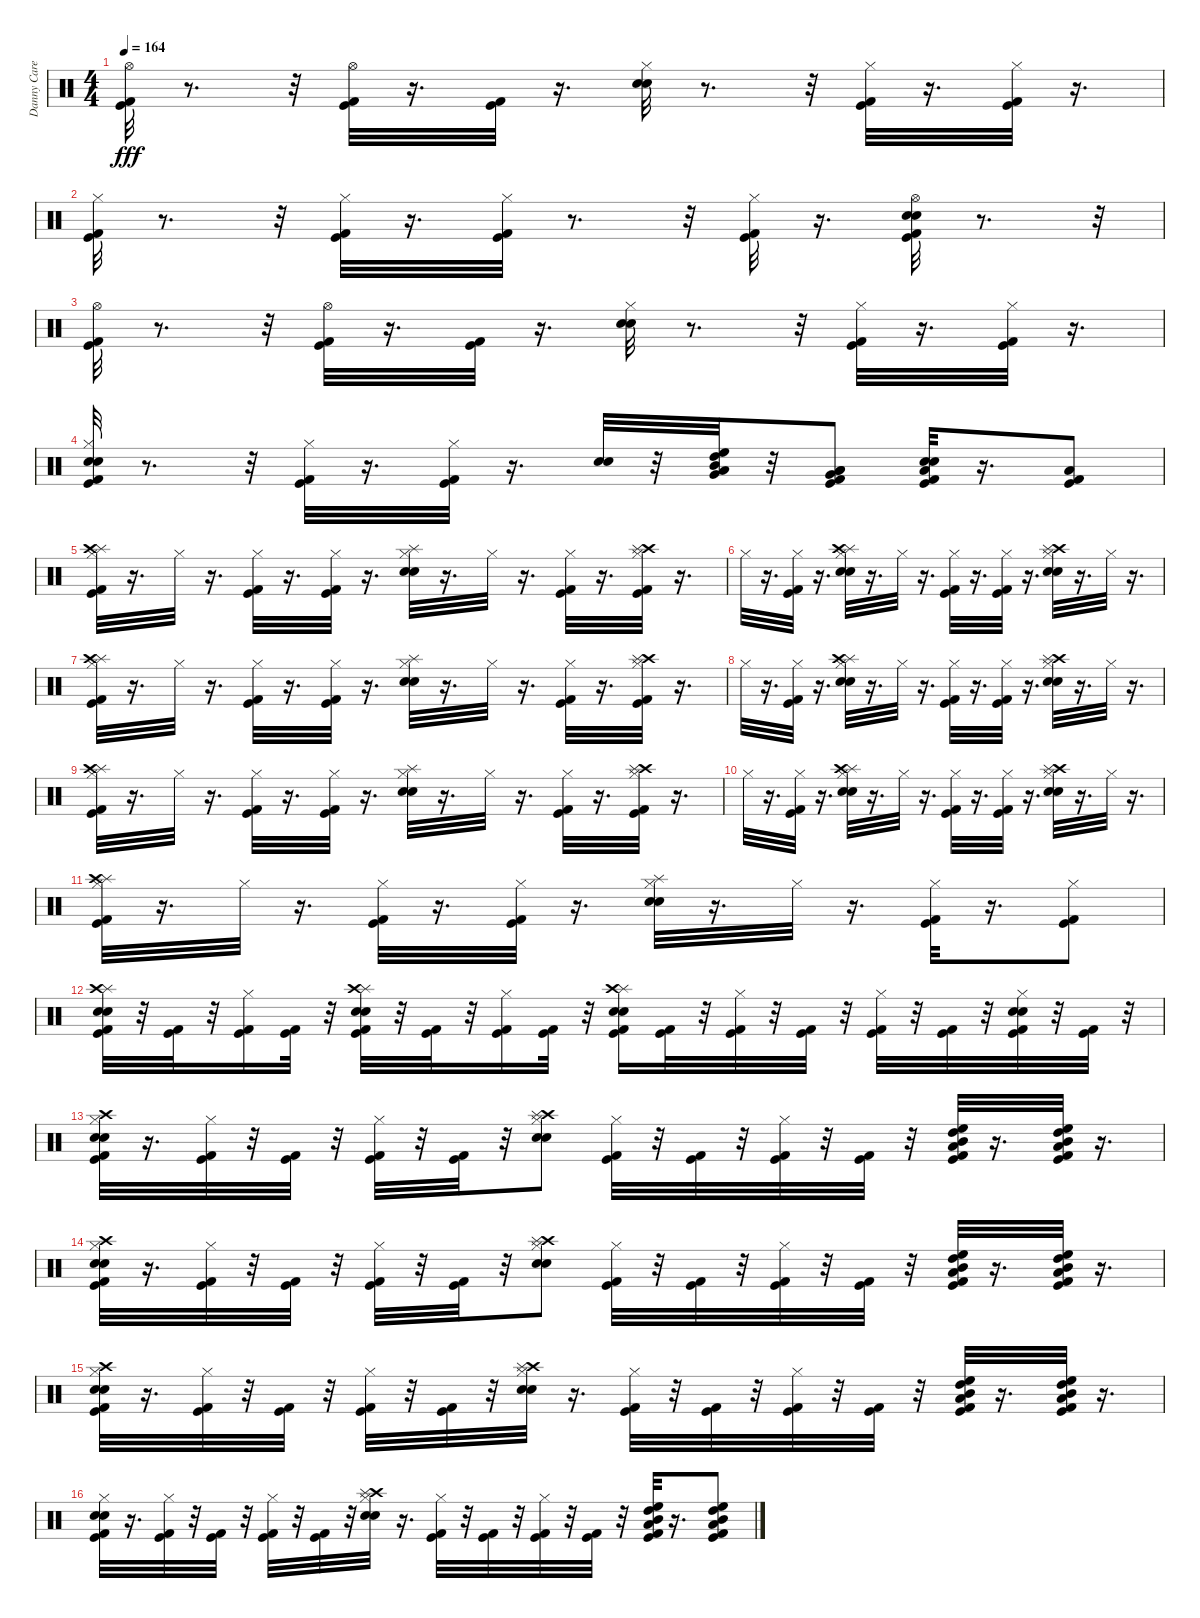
\track ("Danny Carey" "Danny Care") {instrument percussion}
\staff {score}
\articulation defaults
\ts (4 4)
\tempo 164
\clef neutral
\ks c
("Hi-Hat (open)" "Kick (hit)" "Kick (hit) 2").32{dy fff} r.8{d} r.32 ("Hi-Hat (open)" "Kick (hit)" "Kick (hit) 2").32 r.16{d} ("Kick (hit)" "Kick (hit) 2").32 r.16{d} ("Hi-Hat (closed)" "Electric Snare (hit)" "Snare (hit) 2").32 r.8{d} r.32 ("Hi-Hat (closed)" "Kick (hit)" "Kick (hit) 2").32 r.16{d} ("Hi-Hat (closed)" "Kick (hit) 2" "Kick (hit)").32 r.16{d} |
("Hi-Hat (closed)" "Kick (hit)" "Kick (hit) 2").32 r.8{d} r.32 ("Hi-Hat (closed)" "Kick (hit)" "Kick (hit) 2").32 r.16{d} ("Hi-Hat (closed)" "Kick (hit)" "Kick (hit) 2").32 r.8{d} r.32 ("Hi-Hat (closed)" "Kick (hit)" "Kick (hit) 2").32 r.16{d} ("Hi-Hat (open)" "Electric Snare (hit)" "Snare (hit) 2" "Kick (hit) 2" "Kick (hit)").32 r.8{d} r.32 |
("Hi-Hat (open)" "Kick (hit)" "Kick (hit) 2").32 r.8{d} r.32 ("Hi-Hat (open)" "Kick (hit)" "Kick (hit) 2").32 r.16{d} ("Kick (hit)" "Kick (hit) 2").32 r.16{d} ("Hi-Hat (closed)" "Electric Snare (hit)" "Snare (hit) 2").32 r.8{d} r.32 ("Hi-Hat (closed)" "Kick (hit)" "Kick (hit) 2").32 r.16{d} ("Hi-Hat (closed)" "Kick (hit) 2" "Kick (hit)").32 r.16{d} |
("Snare (hit) 2" "Electric Snare (hit)" "Hi-Hat (closed)" "Kick (hit)" "Kick (hit) 2").32 r.8{d} r.32 ("Hi-Hat (closed)" "Kick (hit)" "Kick (hit) 2").32 r.16{d} ("Hi-Hat (closed)" "Kick (hit)" "Kick (hit) 2").32 r.16{d} ("Snare (hit) 2" "Electric Snare (hit)").32 r.32 ("High Floor Tom (hit)" "High Tom (hit)" "Mid Tom (hit)" "Very Low Tom (hit)" "Low Tom (hit)").32 r.32 ("Low Tom (hit)" "Very Low Tom (hit)" "Low Floor Tom (hit)" "Kick (hit)" "Kick (hit) 2").8 ("Low Floor Tom (hit)" "Kick (hit) 2" "Kick (hit)" "Electric Snare (hit)" "Snare (hit) 2").32 r.16{d} ("Low Floor Tom (hit)" "Kick (hit)" "Kick (hit) 2").8 |
("Splash (hit)" "Crash high (hit)" "Hi-Hat (closed)" "Kick (hit)" "Kick (hit) 2").32 r.16{d} "Hi-Hat (closed)".32 r.16{d} ("Hi-Hat (closed)" "Kick (hit)" "Kick (hit) 2").32 r.16{d} ("Hi-Hat (closed)" "Kick (hit)" "Kick (hit) 2").32 r.16{d} ("Splash (hit)" "Hi-Hat (closed)" "Electric Snare (hit)" "Snare (hit) 2").32 r.16{d} "Hi-Hat (closed)".32 r.16{d} ("Kick (hit)" "Kick (hit) 2" "Hi-Hat (closed)").32 r.16{d} ("Crash high (hit)" "Splash (hit)" "Kick (hit)" "Kick (hit) 2" "Hi-Hat (closed)").32 r.16{d} |
"Hi-Hat (closed)".32 r.16{d} ("Kick (hit)" "Kick (hit) 2" "Hi-Hat (closed)").32 r.16{d} ("Splash (hit)" "Crash high (hit)" "Electric Snare (hit)" "Snare (hit) 2" "Hi-Hat (closed)").32 r.16{d} "Hi-Hat (closed)".32 r.16{d} ("Kick (hit)" "Kick (hit) 2" "Hi-Hat (closed)").32 r.16{d} ("Hi-Hat (closed)" "Kick (hit)" "Kick (hit) 2").32 r.16{d} ("Crash high (hit)" "Splash (hit)" "Electric Snare (hit)" "Snare (hit) 2" "Hi-Hat (closed)").32 r.16{d} "Hi-Hat (closed)".32 r.16{d} |
("Splash (hit)" "Crash high (hit)" "Hi-Hat (closed)" "Kick (hit)" "Kick (hit) 2").32 r.16{d} "Hi-Hat (closed)".32 r.16{d} ("Hi-Hat (closed)" "Kick (hit)" "Kick (hit) 2").32 r.16{d} ("Hi-Hat (closed)" "Kick (hit)" "Kick (hit) 2").32 r.16{d} ("Splash (hit)" "Hi-Hat (closed)" "Electric Snare (hit)" "Snare (hit) 2").32 r.16{d} "Hi-Hat (closed)".32 r.16{d} ("Kick (hit)" "Kick (hit) 2" "Hi-Hat (closed)").32 r.16{d} ("Crash high (hit)" "Splash (hit)" "Kick (hit)" "Kick (hit) 2" "Hi-Hat (closed)").32 r.16{d} |
"Hi-Hat (closed)".32 r.16{d} ("Kick (hit)" "Kick (hit) 2" "Hi-Hat (closed)").32 r.16{d} ("Splash (hit)" "Crash high (hit)" "Electric Snare (hit)" "Snare (hit) 2" "Hi-Hat (closed)").32 r.16{d} "Hi-Hat (closed)".32 r.16{d} ("Kick (hit)" "Kick (hit) 2" "Hi-Hat (closed)").32 r.16{d} ("Hi-Hat (closed)" "Kick (hit)" "Kick (hit) 2").32 r.16{d} ("Crash high (hit)" "Splash (hit)" "Electric Snare (hit)" "Snare (hit) 2" "Hi-Hat (closed)").32 r.16{d} "Hi-Hat (closed)".32 r.16{d} |
("Splash (hit)" "Crash high (hit)" "Hi-Hat (closed)" "Kick (hit)" "Kick (hit) 2").32 r.16{d} "Hi-Hat (closed)".32 r.16{d} ("Hi-Hat (closed)" "Kick (hit)" "Kick (hit) 2").32 r.16{d} ("Hi-Hat (closed)" "Kick (hit)" "Kick (hit) 2").32 r.16{d} ("Splash (hit)" "Hi-Hat (closed)" "Electric Snare (hit)" "Snare (hit) 2").32 r.16{d} "Hi-Hat (closed)".32 r.16{d} ("Kick (hit)" "Kick (hit) 2" "Hi-Hat (closed)").32 r.16{d} ("Crash high (hit)" "Splash (hit)" "Kick (hit)" "Kick (hit) 2" "Hi-Hat (closed)").32 r.16{d} |
"Hi-Hat (closed)".32 r.16{d} ("Kick (hit)" "Kick (hit) 2" "Hi-Hat (closed)").32 r.16{d} ("Splash (hit)" "Crash high (hit)" "Electric Snare (hit)" "Snare (hit) 2" "Hi-Hat (closed)").32 r.16{d} "Hi-Hat (closed)".32 r.16{d} ("Kick (hit)" "Kick (hit) 2" "Hi-Hat (closed)").32 r.16{d} ("Hi-Hat (closed)" "Kick (hit)" "Kick (hit) 2").32 r.16{d} ("Crash high (hit)" "Splash (hit)" "Electric Snare (hit)" "Snare (hit) 2" "Hi-Hat (closed)").32 r.16{d} "Hi-Hat (closed)".32 r.16{d} |
("Splash (hit)" "Crash high (hit)" "Hi-Hat (closed)" "Kick (hit)" "Kick (hit) 2").32 r.16{d} "Hi-Hat (closed)".32 r.16{d} ("Hi-Hat (closed)" "Kick (hit)" "Kick (hit) 2").32 r.16{d} ("Hi-Hat (closed)" "Kick (hit)" "Kick (hit) 2").32 r.16{d} ("Splash (hit)" "Hi-Hat (closed)" "Electric Snare (hit)" "Snare (hit) 2").32 r.16{d} "Hi-Hat (closed)".32 r.16{d} ("Kick (hit)" "Kick (hit) 2" "Hi-Hat (closed)").32 r.16{d} ("Kick (hit)" "Kick (hit) 2" "Hi-Hat (closed)").8 |
("Splash (hit)" "Crash high (hit)" "Kick (hit)" "Kick (hit) 2" "Electric Snare (hit)" "Snare (hit) 2").32 r.32 ("Kick (hit)" "Kick (hit) 2").32 r.32 ("Kick (hit)" "Kick (hit) 2" "Hi-Hat (closed)").16 ("Kick (hit) 2" "Kick (hit)").32 r.32 ("Splash (hit)" "Crash high (hit)" "Kick (hit)" "Kick (hit) 2" "Snare (hit) 2" "Electric Snare (hit)").32 r.32 ("Kick (hit) 2" "Kick (hit)").32 r.32 ("Kick (hit)" "Kick (hit) 2" "Hi-Hat (closed)").16 ("Kick (hit) 2" "Kick (hit)").32 r.32 ("Splash (hit)" "Crash high (hit)" "Electric Snare (hit)" "Snare (hit) 2" "Kick (hit)" "Kick (hit) 2").16 ("Kick (hit)" "Kick (hit) 2").32 r.32 ("Hi-Hat (closed)" "Kick (hit)" "Kick (hit) 2").32 r.32 ("Kick (hit) 2" "Kick (hit)").32 r.32 ("Kick (hit)" "Kick (hit) 2" "Hi-Hat (closed)").32 r.32 ("Kick (hit) 2" "Kick (hit)").32 r.32 ("Kick (hit)" "Kick (hit) 2" "Snare (hit) 2" "Electric Snare (hit)" "Hi-Hat (closed)").32 r.32 ("Kick (hit)" "Kick (hit) 2").32 r.32 |
("Kick (hit)" "Kick (hit) 2" "Hi-Hat (closed)" "Snare (hit) 2" "Electric Snare (hit)" "Crash high (hit)").32 r.16{d} ("Hi-Hat (closed)" "Kick (hit) 2" "Kick (hit)").32 r.32 ("Kick (hit)" "Kick (hit) 2").32 r.32 ("Hi-Hat (closed)" "Kick (hit) 2" "Kick (hit)").32 r.32 ("Kick (hit)" "Kick (hit) 2").32 r.32 ("Hi-Hat (closed)" "Snare (hit) 2" "Electric Snare (hit)" "Crash high (hit)" "Splash (hit)").8 ("Kick (hit)" "Kick (hit) 2" "Hi-Hat (closed)").32 r.32 ("Kick (hit)" "Kick (hit) 2").32 r.32 ("Kick (hit)" "Kick (hit) 2" "Hi-Hat (closed)").32 r.32 ("Kick (hit)" "Kick (hit) 2").32 r.32 ("High Floor Tom (hit)" "Mid Tom (hit)" "High Tom (hit)" "Low Tom (hit)" "Kick (hit) 2" "Kick (hit)").32 r.16{d} ("High Floor Tom (hit)" "Mid Tom (hit)" "High Tom (hit)" "Low Tom (hit)" "Kick (hit)" "Kick (hit) 2").32 r.16{d} |
("Kick (hit)" "Kick (hit) 2" "Hi-Hat (closed)" "Snare (hit) 2" "Electric Snare (hit)" "Crash high (hit)").32 r.16{d} ("Hi-Hat (closed)" "Kick (hit) 2" "Kick (hit)").32 r.32 ("Kick (hit)" "Kick (hit) 2").32 r.32 ("Hi-Hat (closed)" "Kick (hit) 2" "Kick (hit)").32 r.32 ("Kick (hit)" "Kick (hit) 2").32 r.32 ("Hi-Hat (closed)" "Snare (hit) 2" "Electric Snare (hit)" "Crash high (hit)" "Splash (hit)").8 ("Kick (hit)" "Kick (hit) 2" "Hi-Hat (closed)").32 r.32 ("Kick (hit)" "Kick (hit) 2").32 r.32 ("Kick (hit)" "Kick (hit) 2" "Hi-Hat (closed)").32 r.32 ("Kick (hit)" "Kick (hit) 2").32 r.32 ("High Floor Tom (hit)" "Mid Tom (hit)" "High Tom (hit)" "Low Tom (hit)" "Kick (hit) 2" "Kick (hit)").32 r.16{d} ("High Floor Tom (hit)" "Mid Tom (hit)" "High Tom (hit)" "Low Tom (hit)" "Kick (hit)" "Kick (hit) 2").32 r.16{d} |
("Kick (hit)" "Kick (hit) 2" "Hi-Hat (closed)" "Snare (hit) 2" "Electric Snare (hit)" "Crash high (hit)").32 r.16{d} ("Hi-Hat (closed)" "Kick (hit) 2" "Kick (hit)").32 r.32 ("Kick (hit)" "Kick (hit) 2").32 r.32 ("Hi-Hat (closed)" "Kick (hit) 2" "Kick (hit)").32 r.32 ("Kick (hit)" "Kick (hit) 2").32 r.32 ("Hi-Hat (closed)" "Snare (hit) 2" "Electric Snare (hit)" "Crash high (hit)" "Splash (hit)").32 r.16{d} ("Kick (hit)" "Kick (hit) 2" "Hi-Hat (closed)").32 r.32 ("Kick (hit)" "Kick (hit) 2").32 r.32 ("Kick (hit)" "Kick (hit) 2" "Hi-Hat (closed)").32 r.32 ("Kick (hit)" "Kick (hit) 2").32 r.32 ("High Floor Tom (hit)" "Mid Tom (hit)" "High Tom (hit)" "Low Tom (hit)" "Kick (hit) 2" "Kick (hit)").32 r.16{d} ("High Floor Tom (hit)" "Mid Tom (hit)" "High Tom (hit)" "Low Tom (hit)" "Kick (hit)" "Kick (hit) 2").32 r.16{d} |
("Kick (hit)" "Kick (hit) 2" "Hi-Hat (closed)" "Snare (hit) 2" "Electric Snare (hit)").32 r.16{d} ("Hi-Hat (closed)" "Kick (hit) 2" "Kick (hit)").32 r.32 ("Kick (hit)" "Kick (hit) 2").32 r.32 ("Hi-Hat (closed)" "Kick (hit) 2" "Kick (hit)").32 r.32 ("Kick (hit)" "Kick (hit) 2").32 r.32 ("Hi-Hat (closed)" "Snare (hit) 2" "Electric Snare (hit)" "Crash high (hit)" "Splash (hit)").32 r.16{d} ("Kick (hit)" "Kick (hit) 2" "Hi-Hat (closed)").32 r.32 ("Kick (hit)" "Kick (hit) 2").32 r.32 ("Kick (hit)" "Kick (hit) 2" "Hi-Hat (closed)").32 r.32 ("Kick (hit)" "Kick (hit) 2").32 r.32 ("High Floor Tom (hit)" "Mid Tom (hit)" "High Tom (hit)" "Low Tom (hit)" "Kick (hit) 2" "Kick (hit)").32 r.16{d} ("High Floor Tom (hit)" "Mid Tom (hit)" "High Tom (hit)" "Low Tom (hit)" "Kick (hit)" "Kick (hit) 2").8
